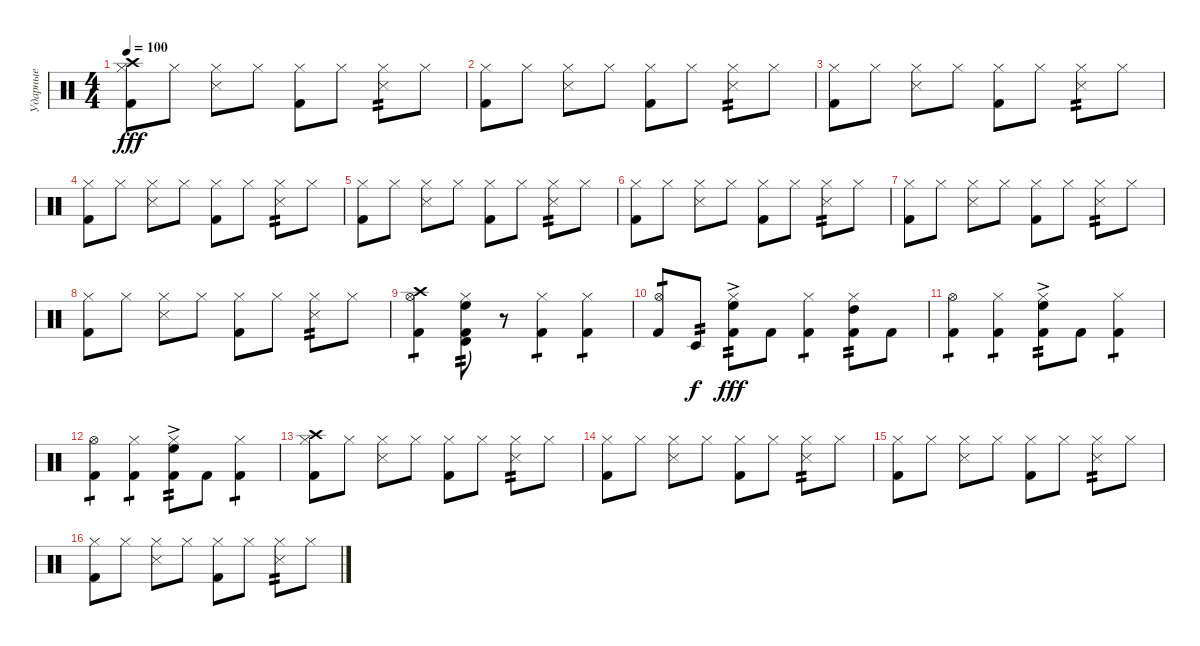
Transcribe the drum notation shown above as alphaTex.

\track ("Ударные" "Ударные") {instrument percussion}
\staff {score}
\articulation defaults
\ts (4 4)
\tempo 100
\clef neutral
\ks c
("Hi-Hat (closed)" "Kick (hit) 2" "Crash high (hit)").8{dy fff} "Hi-Hat (closed)".8 ("Hi-Hat (closed)" "Snare (side stick) 3").8 "Hi-Hat (closed)".8 ("Hi-Hat (closed)" "Kick (hit) 2").8 "Hi-Hat (closed)".8 ("Hi-Hat (closed)" "Snare (side stick) 3").8{tp 2} "Hi-Hat (closed)".8 |
("Hi-Hat (closed)" "Kick (hit) 2").8 "Hi-Hat (closed)".8 ("Hi-Hat (closed)" "Snare (side stick) 3").8 "Hi-Hat (closed)".8 ("Hi-Hat (closed)" "Kick (hit) 2").8 "Hi-Hat (closed)".8 ("Hi-Hat (closed)" "Snare (side stick) 3").8{tp 2} "Hi-Hat (closed)".8 |
("Hi-Hat (closed)" "Kick (hit) 2").8 "Hi-Hat (closed)".8 ("Hi-Hat (closed)" "Snare (side stick) 3").8 "Hi-Hat (closed)".8 ("Hi-Hat (closed)" "Kick (hit) 2").8 "Hi-Hat (closed)".8 ("Hi-Hat (closed)" "Snare (side stick) 3").8{tp 2} "Hi-Hat (closed)".8 |
("Hi-Hat (closed)" "Kick (hit) 2").8 "Hi-Hat (closed)".8 ("Hi-Hat (closed)" "Snare (side stick) 3").8 "Hi-Hat (closed)".8 ("Hi-Hat (closed)" "Kick (hit) 2").8 "Hi-Hat (closed)".8 ("Hi-Hat (closed)" "Snare (side stick) 3").8{tp 2} "Hi-Hat (closed)".8 |
("Hi-Hat (closed)" "Kick (hit) 2").8 "Hi-Hat (closed)".8 ("Hi-Hat (closed)" "Snare (side stick) 3").8 "Hi-Hat (closed)".8 ("Hi-Hat (closed)" "Kick (hit) 2").8 "Hi-Hat (closed)".8 ("Hi-Hat (closed)" "Snare (side stick) 3").8{tp 2} "Hi-Hat (closed)".8 |
("Hi-Hat (closed)" "Kick (hit) 2").8 "Hi-Hat (closed)".8 ("Hi-Hat (closed)" "Snare (side stick) 3").8 "Hi-Hat (closed)".8 ("Hi-Hat (closed)" "Kick (hit) 2").8 "Hi-Hat (closed)".8 ("Hi-Hat (closed)" "Snare (side stick) 3").8{tp 2} "Hi-Hat (closed)".8 |
("Hi-Hat (closed)" "Kick (hit) 2").8 "Hi-Hat (closed)".8 ("Hi-Hat (closed)" "Snare (side stick) 3").8 "Hi-Hat (closed)".8 ("Hi-Hat (closed)" "Kick (hit) 2").8 "Hi-Hat (closed)".8 ("Hi-Hat (closed)" "Snare (side stick) 3").8{tp 2} "Hi-Hat (closed)".8 |
("Hi-Hat (closed)" "Kick (hit) 2").8 "Hi-Hat (closed)".8 ("Hi-Hat (closed)" "Snare (side stick) 3").8 "Hi-Hat (closed)".8 ("Hi-Hat (closed)" "Kick (hit) 2").8 "Hi-Hat (closed)".8 ("Hi-Hat (closed)" "Snare (side stick) 3").8{tp 2} "Hi-Hat (closed)".8 |
("Hi-Hat (open)" "Kick (hit) 2" "Crash high (hit)").4{tp 1} ("Hi-Hat (closed)" "Kick (hit) 2" "High Floor Tom (hit)" "Timbale high (hit)").8{tp 2} r.8 ("Hi-Hat (closed)" "Kick (hit) 2").4{tp 1} ("Hi-Hat (closed)" "Kick (hit) 2").4{tp 1} |
("Hi-Hat (open)" "Kick (hit) 2").8{tp 1} "Timbale low (hit)".8{tp 2 dy f} ("Hi-Hat (closed)" "Kick (hit) 2" "High Floor Tom (hit)"{ac}).8{tp 2 dy fff} "Kick (hit) 2".8 ("Hi-Hat (closed)" "Kick (hit) 2").4{tp 1} ("Hi-Hat (closed)" "Kick (hit) 2" "High Tom (hit)").8{tp 2} "Kick (hit) 2".8 |
("Hi-Hat (open)" "Kick (hit) 2").4{tp 1} ("Hi-Hat (closed)" "Kick (hit) 2").4{tp 1} ("Hi-Hat (closed)" "Kick (hit) 2" "High Floor Tom (hit)"{ac}).8{tp 2} "Kick (hit) 2".8 ("Hi-Hat (closed)" "Kick (hit) 2").4{tp 1} |
("Hi-Hat (open)" "Kick (hit) 2").4{tp 1} ("Hi-Hat (closed)" "Kick (hit) 2").4{tp 1} ("Hi-Hat (closed)" "Kick (hit) 2" "High Floor Tom (hit)"{ac}).8{tp 2} "Kick (hit) 2".8 ("Hi-Hat (closed)" "Kick (hit) 2").4{tp 1} |
("Hi-Hat (closed)" "Kick (hit) 2" "Crash high (hit)").8 "Hi-Hat (closed)".8 ("Hi-Hat (closed)" "Snare (side stick) 3").8 "Hi-Hat (closed)".8 ("Hi-Hat (closed)" "Kick (hit) 2").8 "Hi-Hat (closed)".8 ("Hi-Hat (closed)" "Snare (side stick) 3").8{tp 2} "Hi-Hat (closed)".8 |
("Hi-Hat (closed)" "Kick (hit) 2").8 "Hi-Hat (closed)".8 ("Hi-Hat (closed)" "Snare (side stick) 3").8 "Hi-Hat (closed)".8 ("Hi-Hat (closed)" "Kick (hit) 2").8 "Hi-Hat (closed)".8 ("Hi-Hat (closed)" "Snare (side stick) 3").8{tp 2} "Hi-Hat (closed)".8 |
("Hi-Hat (closed)" "Kick (hit) 2").8 "Hi-Hat (closed)".8 ("Hi-Hat (closed)" "Snare (side stick) 3").8 "Hi-Hat (closed)".8 ("Hi-Hat (closed)" "Kick (hit) 2").8 "Hi-Hat (closed)".8 ("Hi-Hat (closed)" "Snare (side stick) 3").8{tp 2} "Hi-Hat (closed)".8 |
("Hi-Hat (closed)" "Kick (hit) 2").8 "Hi-Hat (closed)".8 ("Hi-Hat (closed)" "Snare (side stick) 3").8 "Hi-Hat (closed)".8 ("Hi-Hat (closed)" "Kick (hit) 2").8 "Hi-Hat (closed)".8 ("Hi-Hat (closed)" "Snare (side stick) 3").8{tp 2} "Hi-Hat (closed)".8
